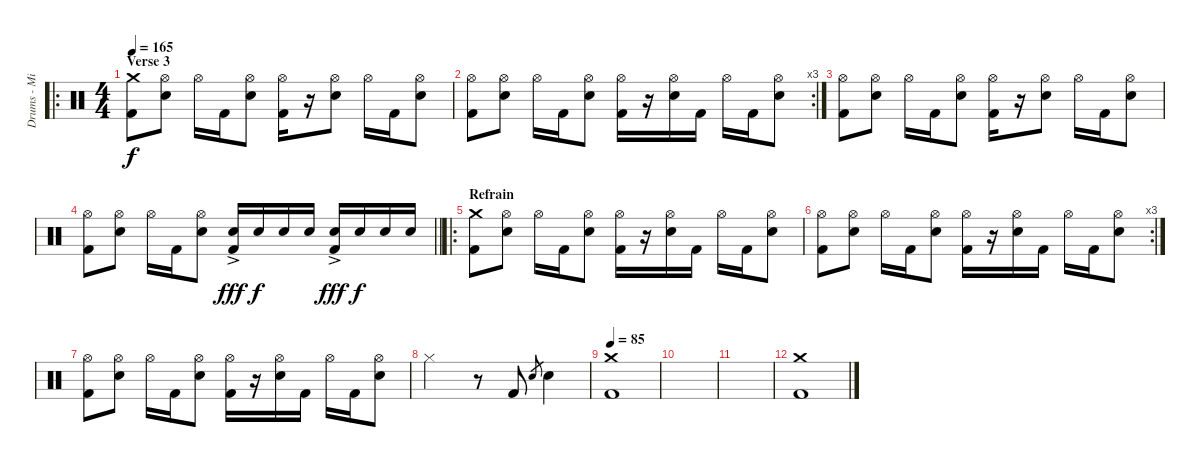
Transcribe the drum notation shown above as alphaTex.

\track ("Drums - Ming" "Drums - Mi") {instrument percussion}
\staff {score}
\articulation defaults
\ro
\ts (4 4)
\section ("" "Verse 3")
\tempo 165
\clef neutral
\ks c
("Crash medium (hit)" "Kick (hit) 2").8{dy f} ("Hi-Hat (open)" "Electric Snare (hit)").8 "Hi-Hat (open)".16 "Kick (hit) 2".16 ("Hi-Hat (open)" "Electric Snare (hit)").8 ("Hi-Hat (open)" "Kick (hit) 2").16 r.16 ("Hi-Hat (open)" "Electric Snare (hit)").8 "Hi-Hat (open)".16 "Kick (hit) 2".16 ("Hi-Hat (open)" "Electric Snare (hit)").8 |
\rc 3
("Hi-Hat (open)" "Kick (hit) 2").8 ("Hi-Hat (open)" "Electric Snare (hit)").8 "Hi-Hat (open)".16 "Kick (hit) 2".16 ("Hi-Hat (open)" "Electric Snare (hit)").8 ("Hi-Hat (open)" "Kick (hit) 2").16 r.16 ("Hi-Hat (open)" "Electric Snare (hit)").16 "Kick (hit) 2".16 "Hi-Hat (open)".16 "Kick (hit) 2".16 ("Hi-Hat (open)" "Electric Snare (hit)").8 |
("Hi-Hat (open)" "Kick (hit) 2").8 ("Hi-Hat (open)" "Electric Snare (hit)").8 "Hi-Hat (open)".16 "Kick (hit) 2".16 ("Hi-Hat (open)" "Electric Snare (hit)").8 ("Hi-Hat (open)" "Kick (hit) 2").16 r.16 ("Hi-Hat (open)" "Electric Snare (hit)").8 "Hi-Hat (open)".16 "Kick (hit) 2".16 ("Hi-Hat (open)" "Electric Snare (hit)").8 |
\barLineRight lightlight
("Hi-Hat (open)" "Kick (hit) 2").8 ("Hi-Hat (open)" "Electric Snare (hit)").8 "Hi-Hat (open)".16 "Kick (hit) 2".16 ("Hi-Hat (open)" "Electric Snare (hit)").8 ("Electric Snare (hit)"{ac} "Kick (hit) 2").16{dy fff} "Electric Snare (hit)".16{dy f} "Electric Snare (hit)".16 "Electric Snare (hit)".16 ("Electric Snare (hit)"{ac} "Kick (hit) 2").16{dy fff} "Electric Snare (hit)".16{dy f} "Electric Snare (hit)".16 "Electric Snare (hit)".16 |
\ro
\section ("" "Refrain")
("Crash medium (hit)" "Kick (hit) 2").8 ("Hi-Hat (open)" "Electric Snare (hit)").8 "Hi-Hat (open)".16 "Kick (hit) 2".16 ("Hi-Hat (open)" "Electric Snare (hit)").8 ("Hi-Hat (open)" "Kick (hit) 2").16 r.16 ("Hi-Hat (open)" "Electric Snare (hit)").16 "Kick (hit) 2".16 "Hi-Hat (open)".16 "Kick (hit) 2".16 ("Hi-Hat (open)" "Electric Snare (hit)").8 |
\rc 3
("Hi-Hat (open)" "Kick (hit) 2").8 ("Hi-Hat (open)" "Electric Snare (hit)").8 "Hi-Hat (open)".16 "Kick (hit) 2".16 ("Hi-Hat (open)" "Electric Snare (hit)").8 ("Hi-Hat (open)" "Kick (hit) 2").16 r.16 ("Hi-Hat (open)" "Electric Snare (hit)").16 "Kick (hit) 2".16 "Hi-Hat (open)".16 "Kick (hit) 2".16 ("Hi-Hat (open)" "Electric Snare (hit)").8 |
("Hi-Hat (open)" "Kick (hit) 2").8 ("Hi-Hat (open)" "Electric Snare (hit)").8 "Hi-Hat (open)".16 "Kick (hit) 2".16 ("Hi-Hat (open)" "Electric Snare (hit)").8 ("Hi-Hat (open)" "Kick (hit) 2").16 r.16 ("Hi-Hat (open)" "Electric Snare (hit)").16 "Kick (hit) 2".16 "Hi-Hat (open)".16 "Kick (hit) 2".16 ("Hi-Hat (open)" "Electric Snare (hit)").8 |
"Hi-Hat (closed)".2 r.8 "Kick (hit) 2".8 "Electric Snare (hit)"{h}.8{gr} "Electric Snare (hit)".4 |
\tempo 85
("Crash medium (hit)" "Kick (hit) 2").1 |
|
|
("Crash medium (hit)" "Kick (hit) 2").1
